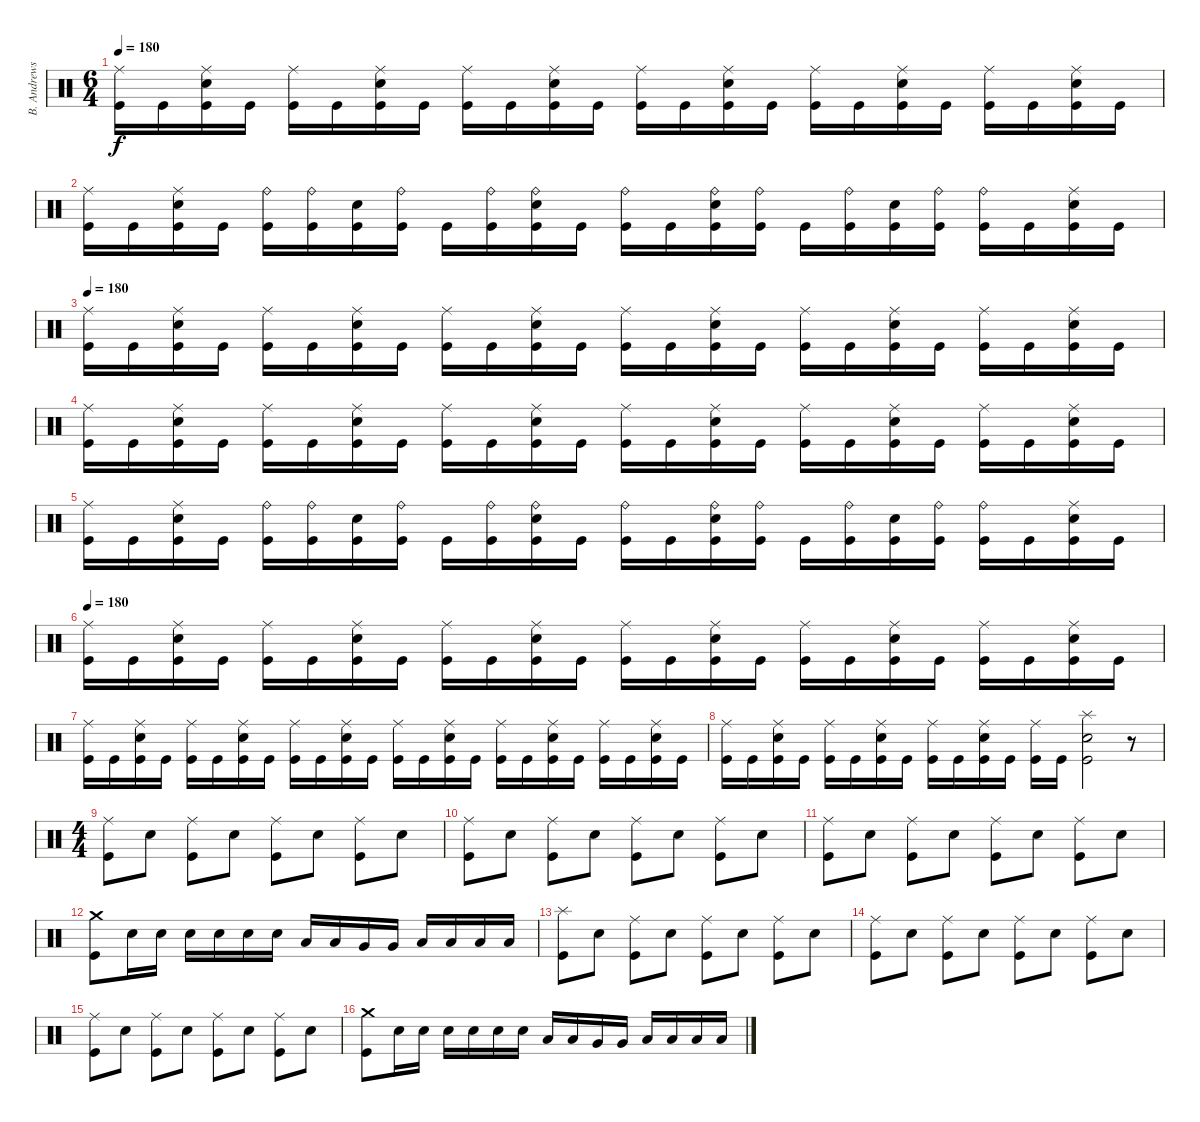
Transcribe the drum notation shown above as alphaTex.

\track ("B. Andrews" "B. Andrews") {instrument percussion}
\staff {score}
\articulation defaults
\ts (6 4)
\tempo 180
\clef neutral
\ks c
("Ride (middle)" "Kick (hit)").16{dy f} "Kick (hit)".16 ("Ride (middle)" "Electric Snare (hit)" "Kick (hit)").16 "Kick (hit)".16 ("Ride (middle)" "Kick (hit)").16 "Kick (hit)".16 ("Ride (middle)" "Electric Snare (hit)" "Kick (hit)").16 "Kick (hit)".16 ("Ride (middle)" "Kick (hit)").16 "Kick (hit)".16 ("Ride (middle)" "Electric Snare (hit)" "Kick (hit)").16 "Kick (hit)".16 ("Ride (middle)" "Kick (hit)").16 "Kick (hit)".16 ("Ride (middle)" "Electric Snare (hit)" "Kick (hit)").16 "Kick (hit)".16 ("Ride (middle)" "Kick (hit)").16 "Kick (hit)".16 ("Ride (middle)" "Electric Snare (hit)" "Kick (hit)").16 "Kick (hit)".16 ("Ride (middle)" "Kick (hit)").16 "Kick (hit)".16 ("Ride (middle)" "Electric Snare (hit)" "Kick (hit)").16 "Kick (hit)".16 |
("Ride (middle)" "Kick (hit)").16 "Kick (hit)".16 ("Ride (middle)" "Electric Snare (hit)" "Kick (hit)").16 "Kick (hit)".16 ("Ride (bell)" "Kick (hit)").16 ("Ride (bell)" "Kick (hit)").16 ("Electric Snare (hit)" "Kick (hit)").16 ("Ride (bell)" "Kick (hit)").16 "Kick (hit)".16 ("Ride (bell)" "Kick (hit)").16 ("Ride (bell)" "Electric Snare (hit)" "Kick (hit)").16 "Kick (hit)".16 ("Ride (bell)" "Kick (hit)").16 "Kick (hit)".16 ("Ride (bell)" "Electric Snare (hit)" "Kick (hit)").16 ("Ride (bell)" "Kick (hit)").16 "Kick (hit)".16 ("Ride (bell)" "Kick (hit)").16 ("Electric Snare (hit)" "Kick (hit)").16 ("Ride (bell)" "Kick (hit)").16 ("Ride (bell)" "Kick (hit)").16 "Kick (hit)".16 ("Ride (middle)" "Electric Snare (hit)" "Kick (hit)").16 "Kick (hit)".16 |
\tempo 180
("Ride (middle)" "Kick (hit)").16 "Kick (hit)".16 ("Ride (middle)" "Electric Snare (hit)" "Kick (hit)").16 "Kick (hit)".16 ("Ride (middle)" "Kick (hit)").16 "Kick (hit)".16 ("Ride (middle)" "Electric Snare (hit)" "Kick (hit)").16 "Kick (hit)".16 ("Ride (middle)" "Kick (hit)").16 "Kick (hit)".16 ("Ride (middle)" "Electric Snare (hit)" "Kick (hit)").16 "Kick (hit)".16 ("Ride (middle)" "Kick (hit)").16 "Kick (hit)".16 ("Ride (middle)" "Electric Snare (hit)" "Kick (hit)").16 "Kick (hit)".16 ("Ride (middle)" "Kick (hit)").16 "Kick (hit)".16 ("Ride (middle)" "Electric Snare (hit)" "Kick (hit)").16 "Kick (hit)".16 ("Ride (middle)" "Kick (hit)").16 "Kick (hit)".16 ("Ride (middle)" "Electric Snare (hit)" "Kick (hit)").16 "Kick (hit)".16 |
("Ride (middle)" "Kick (hit)").16 "Kick (hit)".16 ("Ride (middle)" "Electric Snare (hit)" "Kick (hit)").16 "Kick (hit)".16 ("Ride (middle)" "Kick (hit)").16 "Kick (hit)".16 ("Ride (middle)" "Electric Snare (hit)" "Kick (hit)").16 "Kick (hit)".16 ("Ride (middle)" "Kick (hit)").16 "Kick (hit)".16 ("Ride (middle)" "Electric Snare (hit)" "Kick (hit)").16 "Kick (hit)".16 ("Ride (middle)" "Kick (hit)").16 "Kick (hit)".16 ("Ride (middle)" "Electric Snare (hit)" "Kick (hit)").16 "Kick (hit)".16 ("Ride (middle)" "Kick (hit)").16 "Kick (hit)".16 ("Ride (middle)" "Electric Snare (hit)" "Kick (hit)").16 "Kick (hit)".16 ("Ride (middle)" "Kick (hit)").16 "Kick (hit)".16 ("Ride (middle)" "Electric Snare (hit)" "Kick (hit)").16 "Kick (hit)".16 |
("Ride (middle)" "Kick (hit)").16 "Kick (hit)".16 ("Ride (middle)" "Electric Snare (hit)" "Kick (hit)").16 "Kick (hit)".16 ("Ride (bell)" "Kick (hit)").16 ("Ride (bell)" "Kick (hit)").16 ("Electric Snare (hit)" "Kick (hit)").16 ("Ride (bell)" "Kick (hit)").16 "Kick (hit)".16 ("Ride (bell)" "Kick (hit)").16 ("Ride (bell)" "Electric Snare (hit)" "Kick (hit)").16 "Kick (hit)".16 ("Ride (bell)" "Kick (hit)").16 "Kick (hit)".16 ("Ride (bell)" "Electric Snare (hit)" "Kick (hit)").16 ("Ride (bell)" "Kick (hit)").16 "Kick (hit)".16 ("Ride (bell)" "Kick (hit)").16 ("Electric Snare (hit)" "Kick (hit)").16 ("Ride (bell)" "Kick (hit)").16 ("Ride (bell)" "Kick (hit)").16 "Kick (hit)".16 ("Ride (middle)" "Electric Snare (hit)" "Kick (hit)").16 "Kick (hit)".16 |
\tempo 180
("Ride (middle)" "Kick (hit)").16 "Kick (hit)".16 ("Ride (middle)" "Electric Snare (hit)" "Kick (hit)").16 "Kick (hit)".16 ("Ride (middle)" "Kick (hit)").16 "Kick (hit)".16 ("Ride (middle)" "Electric Snare (hit)" "Kick (hit)").16 "Kick (hit)".16 ("Ride (middle)" "Kick (hit)").16 "Kick (hit)".16 ("Ride (middle)" "Electric Snare (hit)" "Kick (hit)").16 "Kick (hit)".16 ("Ride (middle)" "Kick (hit)").16 "Kick (hit)".16 ("Ride (middle)" "Electric Snare (hit)" "Kick (hit)").16 "Kick (hit)".16 ("Ride (middle)" "Kick (hit)").16 "Kick (hit)".16 ("Ride (middle)" "Electric Snare (hit)" "Kick (hit)").16 "Kick (hit)".16 ("Ride (middle)" "Kick (hit)").16 "Kick (hit)".16 ("Ride (middle)" "Electric Snare (hit)" "Kick (hit)").16 "Kick (hit)".16 |
("Ride (middle)" "Kick (hit)").16 "Kick (hit)".16 ("Ride (middle)" "Electric Snare (hit)" "Kick (hit)").16 "Kick (hit)".16 ("Ride (middle)" "Kick (hit)").16 "Kick (hit)".16 ("Ride (middle)" "Electric Snare (hit)" "Kick (hit)").16 "Kick (hit)".16 ("Ride (middle)" "Kick (hit)").16 "Kick (hit)".16 ("Ride (middle)" "Electric Snare (hit)" "Kick (hit)").16 "Kick (hit)".16 ("Ride (middle)" "Kick (hit)").16 "Kick (hit)".16 ("Ride (middle)" "Electric Snare (hit)" "Kick (hit)").16 "Kick (hit)".16 ("Ride (middle)" "Kick (hit)").16 "Kick (hit)".16 ("Ride (middle)" "Electric Snare (hit)" "Kick (hit)").16 "Kick (hit)".16 ("Ride (middle)" "Kick (hit)").16 "Kick (hit)".16 ("Ride (middle)" "Electric Snare (hit)" "Kick (hit)").16 "Kick (hit)".16 |
("Ride (middle)" "Kick (hit)").16 "Kick (hit)".16 ("Ride (middle)" "Electric Snare (hit)" "Kick (hit)").16 "Kick (hit)".16 ("Ride (middle)" "Kick (hit)").16 "Kick (hit)".16 ("Ride (middle)" "Electric Snare (hit)" "Kick (hit)").16 "Kick (hit)".16 ("Ride (middle)" "Kick (hit)").16 "Kick (hit)".16 ("Ride (middle)" "Electric Snare (hit)" "Kick (hit)").16 "Kick (hit)".16 ("Ride (middle)" "Kick (hit)").16 "Kick (hit)".16 ("Splash (hit)" "Electric Snare (hit)" "Kick (hit)").2 r.8 |
\ts (4 4)
("Ride (middle)" "Kick (hit)").8 "Electric Snare (hit)".8 ("Ride (middle)" "Kick (hit)").8 "Electric Snare (hit)".8 ("Ride (middle)" "Kick (hit)").8 "Electric Snare (hit)".8 ("Ride (middle)" "Kick (hit)").8 "Electric Snare (hit)".8 |
("Ride (middle)" "Kick (hit)").8 "Electric Snare (hit)".8 ("Ride (middle)" "Kick (hit)").8 "Electric Snare (hit)".8 ("Ride (middle)" "Kick (hit)").8 "Electric Snare (hit)".8 ("Ride (middle)" "Kick (hit)").8 "Electric Snare (hit)".8 |
("Ride (middle)" "Kick (hit)").8 "Electric Snare (hit)".8 ("Ride (middle)" "Kick (hit)").8 "Electric Snare (hit)".8 ("Ride (middle)" "Kick (hit)").8 "Electric Snare (hit)".8 ("Ride (middle)" "Kick (hit)").8 "Electric Snare (hit)".8 |
("Crash medium (hit)" "Kick (hit)").8 "Electric Snare (hit)".16 "Electric Snare (hit)".16 "Electric Snare (hit)".16 "Electric Snare (hit)".16 "Electric Snare (hit)".16 "Electric Snare (hit)".16 "Low Tom (hit)".16 "Low Tom (hit)".16 "Very Low Tom (hit)".16 "Very Low Tom (hit)".16 "Low Floor Tom (hit)".16 "Low Floor Tom (hit)".16 "Low Floor Tom (hit)".16 "Low Floor Tom (hit)".16 |
("Splash (hit)" "Kick (hit)").8 "Electric Snare (hit)".8 ("Ride (middle)" "Kick (hit)").8 "Electric Snare (hit)".8 ("Ride (middle)" "Kick (hit)").8 "Electric Snare (hit)".8 ("Ride (middle)" "Kick (hit)").8 "Electric Snare (hit)".8 |
("Ride (middle)" "Kick (hit)").8 "Electric Snare (hit)".8 ("Ride (middle)" "Kick (hit)").8 "Electric Snare (hit)".8 ("Ride (middle)" "Kick (hit)").8 "Electric Snare (hit)".8 ("Ride (middle)" "Kick (hit)").8 "Electric Snare (hit)".8 |
("Ride (middle)" "Kick (hit)").8 "Electric Snare (hit)".8 ("Ride (middle)" "Kick (hit)").8 "Electric Snare (hit)".8 ("Ride (middle)" "Kick (hit)").8 "Electric Snare (hit)".8 ("Ride (middle)" "Kick (hit)").8 "Electric Snare (hit)".8 |
("Crash medium (hit)" "Kick (hit)").8 "Electric Snare (hit)".16 "Electric Snare (hit)".16 "Electric Snare (hit)".16 "Electric Snare (hit)".16 "Electric Snare (hit)".16 "Electric Snare (hit)".16 "Low Tom (hit)".16 "Low Tom (hit)".16 "Very Low Tom (hit)".16 "Very Low Tom (hit)".16 "Low Floor Tom (hit)".16 "Low Floor Tom (hit)".16 "Low Floor Tom (hit)".16 "Low Floor Tom (hit)".16
